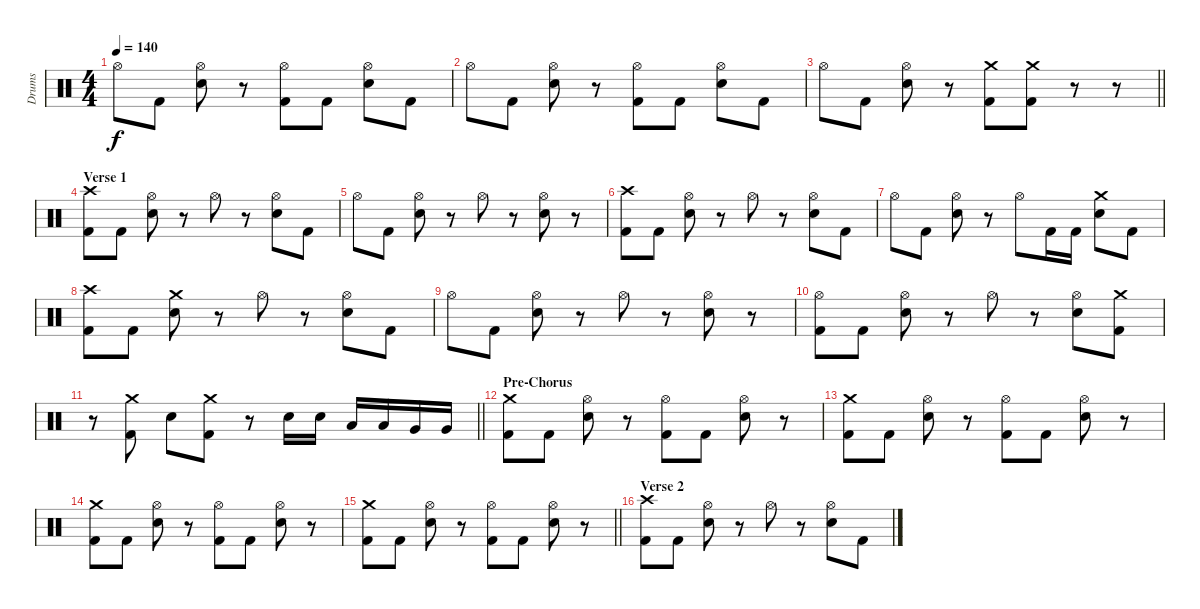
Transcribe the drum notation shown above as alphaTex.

\track ("Drums" "Drums") {instrument percussion}
\staff {score}
\articulation defaults
\ts (4 4)
\tempo 140
\clef neutral
\ks c "Hi-Hat (open)".8{dy f} "Kick (hit) 2".8
("Hi-Hat (open)" "Electric Snare (hit)").8 r.8 ("Hi-Hat (open)" "Kick (hit) 2").8 "Kick (hit) 2".8 ("Hi-Hat (open)" "Electric Snare (hit)").8 "Kick (hit) 2".8 |
"Hi-Hat (open)".8 "Kick (hit) 2".8 ("Hi-Hat (open)" "Electric Snare (hit)").8 r.8 ("Hi-Hat (open)" "Kick (hit) 2").8 "Kick (hit) 2".8 ("Hi-Hat (open)" "Electric Snare (hit)").8 "Kick (hit) 2".8 |
\barLineRight lightlight "Hi-Hat (open)".8 "Kick (hit) 2".8
("Hi-Hat (open)" "Electric Snare (hit)").8 r.8 ("Crash medium (hit)" "Kick (hit) 2").8 ("Crash medium (hit)" "Kick (hit) 2").8 r.8 r.8 |
\section ("" "Verse 1")
("Crash high (hit)" "Kick (hit) 2").8 "Kick (hit) 2".8 ("Hi-Hat (open)" "Electric Snare (hit)").8 r.8 "Hi-Hat (open)".8 r.8 ("Hi-Hat (open)" "Electric Snare (hit)").8 "Kick (hit) 2".8 |
"Hi-Hat (open)".8 "Kick (hit) 2".8 ("Hi-Hat (open)" "Electric Snare (hit)").8 r.8 "Hi-Hat (open)".8 r.8 ("Hi-Hat (open)" "Electric Snare (hit)").8 r.8 |
("Crash high (hit)" "Kick (hit) 2").8 "Kick (hit) 2".8 ("Hi-Hat (open)" "Electric Snare (hit)").8 r.8 "Hi-Hat (open)".8 r.8 ("Hi-Hat (open)" "Electric Snare (hit)").8 "Kick (hit) 2".8 |
"Hi-Hat (open)".8 "Kick (hit) 2".8 ("Hi-Hat (open)" "Electric Snare (hit)").8 r.8 "Hi-Hat (open)".8 "Kick (hit) 2".16 "Kick (hit) 2".16 ("Crash medium (hit)" "Electric Snare (hit)").8 "Kick (hit) 2".8 |
("Crash high (hit)" "Kick (hit) 2").8 "Kick (hit) 2".8 ("Crash medium (hit)" "Electric Snare (hit)").8 r.8 "Hi-Hat (open)".8 r.8 ("Hi-Hat (open)" "Electric Snare (hit)").8 "Kick (hit) 2".8 |
"Hi-Hat (open)".8 "Kick (hit) 2".8 ("Hi-Hat (open)" "Electric Snare (hit)").8 r.8 "Hi-Hat (open)".8 r.8 ("Hi-Hat (open)" "Electric Snare (hit)").8 r.8 |
("Hi-Hat (open)" "Kick (hit) 2").8 "Kick (hit) 2".8 ("Hi-Hat (open)" "Electric Snare (hit)").8 r.8 "Hi-Hat (open)".8 r.8 ("Hi-Hat (open)" "Electric Snare (hit)").8 ("Crash medium (hit)" "Kick (hit) 2").8 |
\barLineRight lightlight
r.8 ("Crash medium (hit)" "Kick (hit) 2").8 "Electric Snare (hit)".8 ("Crash medium (hit)" "Kick (hit) 2").8 r.8 "Electric Snare (hit)".16 "Electric Snare (hit)".16 "Low Tom (hit)".16 "Low Tom (hit)".16 "Very Low Tom (hit)".16 "Very Low Tom (hit)".16 |
\section ("" "Pre-Chorus")
("Crash medium (hit)" "Kick (hit) 2").8 "Kick (hit) 2".8 ("Hi-Hat (open)" "Electric Snare (hit)").8 r.8 ("Hi-Hat (open)" "Kick (hit) 2").8 "Kick (hit) 2".8 ("Hi-Hat (open)" "Electric Snare (hit)").8 r.8 |
("Crash medium (hit)" "Kick (hit) 2").8 "Kick (hit) 2".8 ("Hi-Hat (open)" "Electric Snare (hit)").8 r.8 ("Hi-Hat (open)" "Kick (hit) 2").8 "Kick (hit) 2".8 ("Hi-Hat (open)" "Electric Snare (hit)").8 r.8 |
("Crash medium (hit)" "Kick (hit) 2").8 "Kick (hit) 2".8 ("Hi-Hat (open)" "Electric Snare (hit)").8 r.8 ("Hi-Hat (open)" "Kick (hit) 2").8 "Kick (hit) 2".8 ("Hi-Hat (open)" "Electric Snare (hit)").8 r.8 |
\barLineRight lightlight
("Crash medium (hit)" "Kick (hit) 2").8 "Kick (hit) 2".8 ("Hi-Hat (open)" "Electric Snare (hit)").8 r.8 ("Hi-Hat (open)" "Kick (hit) 2").8 "Kick (hit) 2".8 ("Hi-Hat (open)" "Electric Snare (hit)").8 r.8 |
\section ("" "Verse 2")
("Crash high (hit)" "Kick (hit) 2").8 "Kick (hit) 2".8 ("Hi-Hat (open)" "Electric Snare (hit)").8 r.8 "Hi-Hat (open)".8 r.8 ("Hi-Hat (open)" "Electric Snare (hit)").8 "Kick (hit) 2".8
